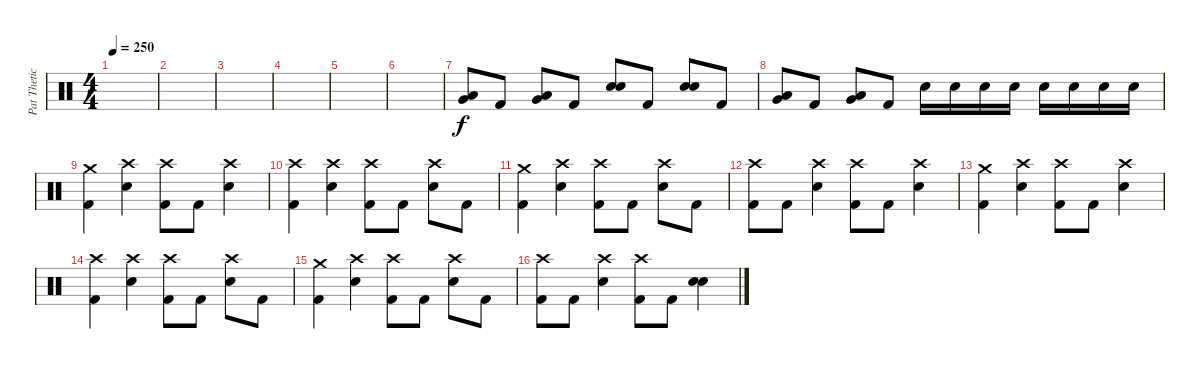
\track ("Pat Thetic" "Pat Thetic") {instrument percussion}
\staff {score}
\articulation defaults
\ts (4 4)
\tempo 250
\clef neutral
\ks c
|
|
|
|
|
|
("Low Tom (hit)" "Very Low Tom (hit)").8 "Kick (hit) 2".8 ("Low Tom (hit)" "Very Low Tom (hit)").8 "Kick (hit) 2".8 ("Snare (hit) 2" "Snare (hit) 2").8 "Kick (hit) 2".8 ("Snare (hit) 2" "Snare (hit) 2").8 "Kick (hit) 2".8 |
("Low Tom (hit)" "Very Low Tom (hit)").8 "Kick (hit) 2".8 ("Low Tom (hit)" "Very Low Tom (hit)").8 "Kick (hit) 2".8 "Snare (hit) 2".16 "Snare (hit) 2".16 "Snare (hit) 2".16 "Snare (hit) 2".16 "Snare (hit) 2".16 "Snare (hit) 2".16 "Snare (hit) 2".16 "Snare (hit) 2".16 |
("Crash medium (hit)" "Kick (hit) 2").4 ("Crash high (hit)" "Snare (hit) 2").4 ("Crash high (hit)" "Kick (hit) 2").8 "Kick (hit) 2".8 ("Crash high (hit)" "Snare (hit) 2").4 |
("Crash high (hit)" "Kick (hit) 2").4 ("Crash high (hit)" "Snare (hit) 2").4 ("Crash high (hit)" "Kick (hit) 2").8 "Kick (hit) 2".8 ("Crash high (hit)" "Snare (hit) 2").8 "Kick (hit) 2".8 |
("Crash medium (hit)" "Kick (hit) 2").4 ("Crash high (hit)" "Snare (hit) 2").4 ("Crash high (hit)" "Kick (hit) 2").8 "Kick (hit) 2".8 ("Crash high (hit)" "Snare (hit) 2").8 "Kick (hit) 2".8 |
("Crash high (hit)" "Kick (hit) 2").8 "Kick (hit) 2".8 ("Crash high (hit)" "Snare (hit) 2").4 ("Crash high (hit)" "Kick (hit) 2").8 "Kick (hit) 2".8 ("Crash high (hit)" "Snare (hit) 2").4 |
("Crash medium (hit)" "Kick (hit) 2").4 ("Crash high (hit)" "Snare (hit) 2").4 ("Crash high (hit)" "Kick (hit) 2").8 "Kick (hit) 2".8 ("Crash high (hit)" "Snare (hit) 2").4 |
("Crash high (hit)" "Kick (hit) 2").4 ("Crash high (hit)" "Snare (hit) 2").4 ("Crash high (hit)" "Kick (hit) 2").8 "Kick (hit) 2".8 ("Crash high (hit)" "Snare (hit) 2").8 "Kick (hit) 2".8 |
("Crash medium (hit)" "Kick (hit) 2").4 ("Crash high (hit)" "Snare (hit) 2").4 ("Crash high (hit)" "Kick (hit) 2").8 "Kick (hit) 2".8 ("Crash high (hit)" "Snare (hit) 2").8 "Kick (hit) 2".8 |
("Crash high (hit)" "Kick (hit) 2").8 "Kick (hit) 2".8 ("Crash high (hit)" "Snare (hit) 2").4 ("Crash high (hit)" "Kick (hit) 2").8 "Kick (hit) 2".8 ("Snare (hit) 2" "Snare (hit) 2").4
